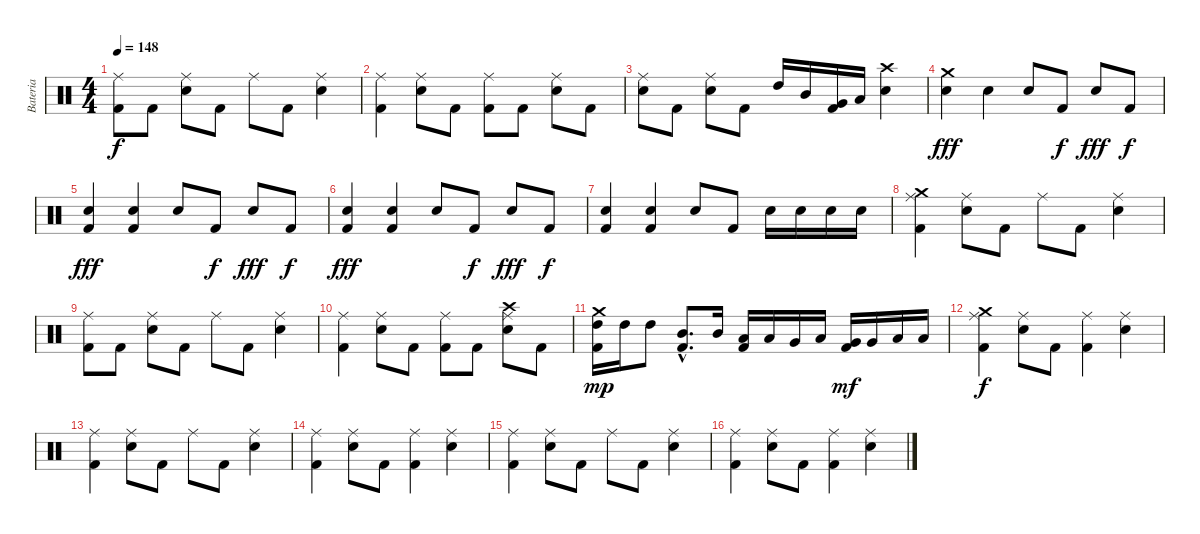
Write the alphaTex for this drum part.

\track ("Bateria" "Bateria") {instrument percussion}
\staff {score}
\articulation defaults
\ts (4 4)
\tempo 148
\clef neutral
\ks c
("Kick (hit) 2" "Ride (middle)").8{dy f} "Kick (hit) 2".8 ("Electric Snare (hit)" "Ride (middle)").8 "Kick (hit) 2".8 "Ride (middle)".8 "Kick (hit) 2".8 ("Electric Snare (hit)" "Ride (middle)").4 |
("Kick (hit) 2" "Ride (middle)").4 ("Electric Snare (hit)" "Ride (middle)").8 "Kick (hit) 2".8 ("Kick (hit) 2" "Ride (middle)").8 "Kick (hit) 2".8 ("Electric Snare (hit)" "Ride (middle)").8 "Kick (hit) 2".8 |
("Electric Snare (hit)" "Ride (middle)").8 "Kick (hit) 2".8 ("Electric Snare (hit)" "Ride (middle)").8 "Kick (hit) 2".8 "High Tom (hit)".16 "Mid Tom (hit)".16 ("Very Low Tom (hit)" "Kick (hit) 2").16 "Low Floor Tom (hit)".16 ("Electric Snare (hit)" "Crash high (hit)").4 |
("Crash medium (hit)" "Electric Snare (hit)").4{dy fff} "Electric Snare (hit)".4 "Electric Snare (hit)".8 "Kick (hit) 2".8{dy f} "Electric Snare (hit)".8{dy fff} "Kick (hit) 2".8{dy f} |
("Kick (hit) 2" "Electric Snare (hit)").4{dy fff} ("Electric Snare (hit)" "Kick (hit) 2").4 "Electric Snare (hit)".8 "Kick (hit) 2".8{dy f} "Electric Snare (hit)".8{dy fff} "Kick (hit) 2".8{dy f} |
("Electric Snare (hit)" "Kick (hit) 2").4{dy fff} ("Electric Snare (hit)" "Kick (hit) 2").4 "Electric Snare (hit)".8 "Kick (hit) 2".8{dy f} "Electric Snare (hit)".8{dy fff} "Kick (hit) 2".8{dy f} |
("Electric Snare (hit)" "Kick (hit) 2").4 ("Electric Snare (hit)" "Kick (hit) 2").4 "Electric Snare (hit)".8 "Kick (hit) 2".8 "Electric Snare (hit)".16 "Electric Snare (hit)".16 "Electric Snare (hit)".16 "Electric Snare (hit)".16 |
("Crash medium (hit)" "Kick (hit) 2" "Ride (middle)").4 ("Electric Snare (hit)" "Ride (middle)").8 "Kick (hit) 2".8 "Ride (middle)".8 "Kick (hit) 2".8 ("Electric Snare (hit)" "Ride (middle)").4 |
("Kick (hit) 2" "Ride (middle)").8 "Kick (hit) 2".8 ("Electric Snare (hit)" "Ride (middle)").8 "Kick (hit) 2".8 "Ride (middle)".8 "Kick (hit) 2".8 ("Electric Snare (hit)" "Ride (middle)").4 |
("Kick (hit) 2" "Ride (middle)").4 ("Electric Snare (hit)" "Ride (middle)").8 "Kick (hit) 2".8 ("Kick (hit) 2" "Ride (middle)").8 "Kick (hit) 2".8 ("Electric Snare (hit)" "Ride (middle)" "Crash high (hit)").8 "Kick (hit) 2".8 |
("Kick (hit) 2" "High Tom (hit)" "Crash medium (hit)").16{dy mp} "High Tom (hit)".16 "High Tom (hit)".8 ("Kick (hit) 2"{hac} "Mid Tom (hit)"{hac}).8{d} "Mid Tom (hit)".16 ("Kick (hit) 2" "Low Tom (hit)").16 "Low Tom (hit)".16 "Very Low Tom (hit)".16 "Low Floor Tom (hit)".16 ("Kick (hit) 2" "Very Low Tom (hit)").16{dy mf} "Very Low Tom (hit)".16 "Low Floor Tom (hit)".16 "Low Floor Tom (hit)".16 |
("Kick (hit) 2" "Crash medium (hit)" "Ride (middle)").4{dy f} ("Electric Snare (hit)" "Ride (middle)").8 "Kick (hit) 2".8 ("Kick (hit) 2" "Ride (middle)").4 ("Electric Snare (hit)" "Ride (middle)").4 |
("Kick (hit) 2" "Ride (middle)").4 ("Electric Snare (hit)" "Ride (middle)").8 "Kick (hit) 2".8 "Ride (middle)".8 "Kick (hit) 2".8 ("Electric Snare (hit)" "Ride (middle)").4 |
("Kick (hit) 2" "Ride (middle)").4 ("Electric Snare (hit)" "Ride (middle)").8 "Kick (hit) 2".8 ("Kick (hit) 2" "Ride (middle)").4 ("Electric Snare (hit)" "Ride (middle)").4 |
("Kick (hit) 2" "Ride (middle)").4 ("Electric Snare (hit)" "Ride (middle)").8 "Kick (hit) 2".8 "Ride (middle)".8 "Kick (hit) 2".8 ("Electric Snare (hit)" "Ride (middle)").4 |
("Kick (hit) 2" "Ride (middle)").4 ("Electric Snare (hit)" "Ride (middle)").8 "Kick (hit) 2".8 ("Kick (hit) 2" "Ride (middle)").4 ("Electric Snare (hit)" "Ride (middle)").4
